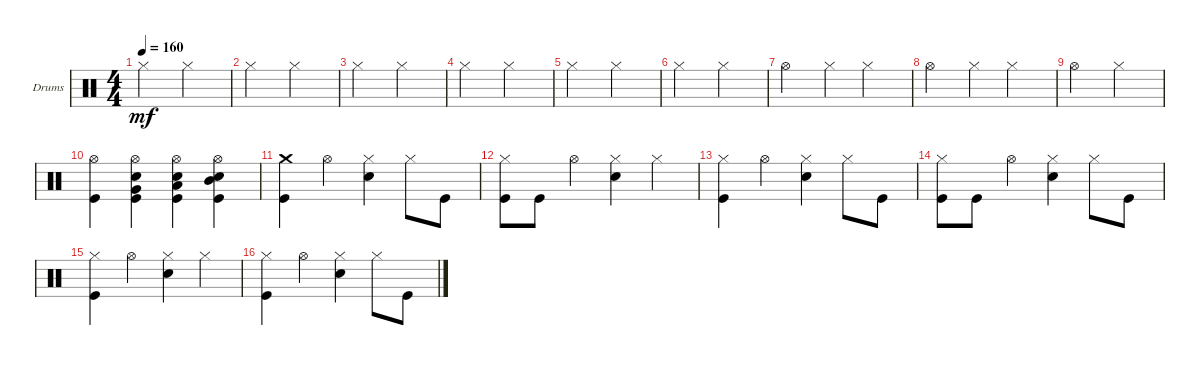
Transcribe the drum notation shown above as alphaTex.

\defaultSystemsLayout 4
\bracketExtendMode groupsimilarinstruments
\firstSystemTrackNameOrientation horizontal
\otherSystemsTrackNameOrientation horizontal
\track ("Drumkit" "Drums") {instrument percussion}
\staff {score}
\articulation defaults
\ts (4 4)
\tempo 160
\clef neutral
\ks c "Hi-Hat (closed)".2{dy mf} "Hi-Hat (closed)".2
|
"Hi-Hat (closed)".2 "Hi-Hat (closed)".2 |
"Hi-Hat (closed)".2 "Hi-Hat (closed)".2 |
"Hi-Hat (closed)".2 "Hi-Hat (closed)".2 |
"Hi-Hat (closed)".2 "Hi-Hat (closed)".2 |
"Hi-Hat (closed)".2 "Hi-Hat (closed)".2 |
"Hi-Hat (open)".2 "Hi-Hat (closed)".4 "Hi-Hat (closed)".2 |
"Hi-Hat (open)".2 "Hi-Hat (closed)".4 "Hi-Hat (closed)".2 |
"Hi-Hat (open)".2 "Hi-Hat (closed)".2 |
("Kick (hit)" "Hi-Hat (open)").4 ("Snare (hit) 2" "Kick (hit)" "Very Low Tom (hit)" "Hi-Hat (open)").4 ("Snare (hit) 2" "Kick (hit)" "Low Tom (hit)" "Hi-Hat (open)").4 ("Snare (hit) 2" "Kick (hit)" "Mid Tom (hit)" "Hi-Hat (open)").4 |
("Crash medium (hit)" "Kick (hit)").4 "Hi-Hat (open)".4 ("Snare (hit) 2" "Hi-Hat (closed)").4 "Hi-Hat (closed)".8 "Kick (hit)".8 |
("Kick (hit)" "Hi-Hat (closed)").8 "Kick (hit)".8 "Hi-Hat (open)".4 ("Snare (hit) 2" "Hi-Hat (closed)").4 "Hi-Hat (closed)".4 |
("Kick (hit)" "Hi-Hat (closed)").4 "Hi-Hat (open)".4 ("Snare (hit) 2" "Hi-Hat (closed)").4 "Hi-Hat (closed)".8 "Kick (hit)".8 |
("Kick (hit)" "Hi-Hat (closed)").8 "Kick (hit)".8 "Hi-Hat (open)".4 ("Snare (hit) 2" "Hi-Hat (closed)").4 "Hi-Hat (closed)".8 "Kick (hit)".8 |
("Kick (hit)" "Hi-Hat (closed)").4 "Hi-Hat (open)".4 ("Snare (hit) 2" "Hi-Hat (closed)").4 "Hi-Hat (closed)".4 |
("Kick (hit)" "Hi-Hat (closed)").4 "Hi-Hat (open)".4 ("Snare (hit) 2" "Hi-Hat (closed)").4 "Hi-Hat (closed)".8 "Kick (hit)".8
